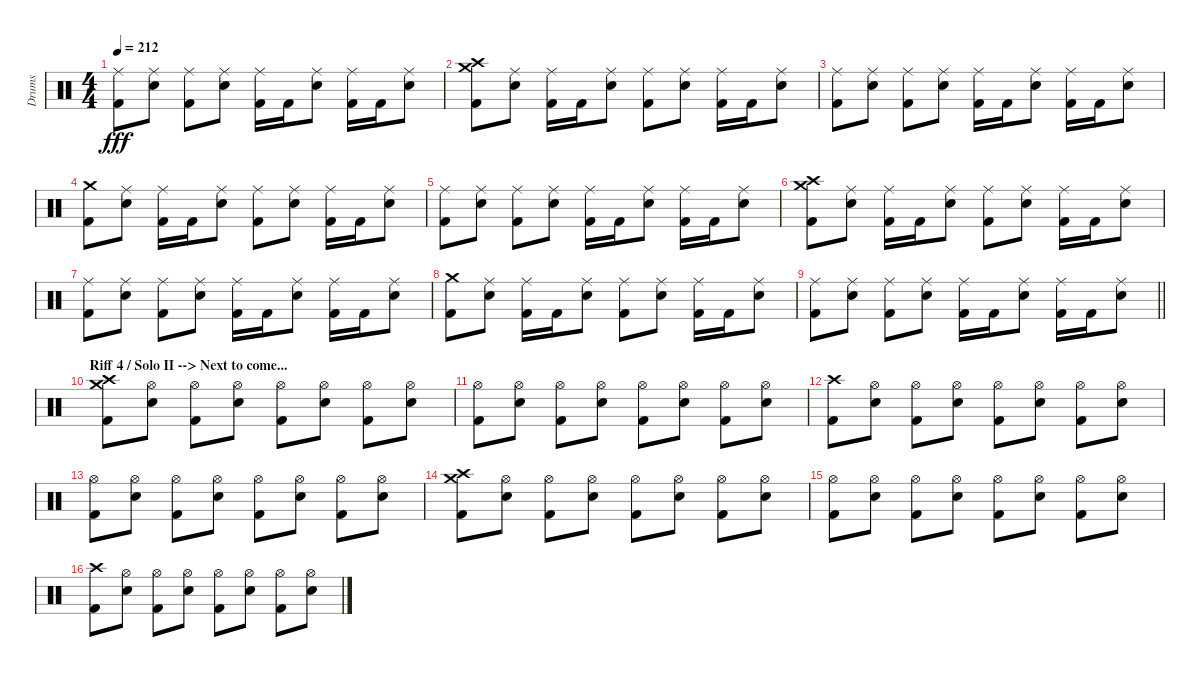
\track ("Drums" "Drums") {instrument percussion}
\staff {score}
\articulation defaults
\ts (4 4)
\tempo 212
\clef neutral
\ks c
("Ride (middle)" "Kick (hit) 2").8{dy fff} ("Ride (middle)" "Electric Snare (hit)").8 ("Ride (middle)" "Kick (hit) 2").8 ("Ride (middle)" "Electric Snare (hit)").8 ("Ride (middle)" "Kick (hit) 2").16 "Kick (hit) 2".16 ("Ride (middle)" "Electric Snare (hit)").8 ("Ride (middle)" "Kick (hit) 2").16 "Kick (hit) 2".16 ("Ride (middle)" "Electric Snare (hit)").8 |
("Crash high (hit)" "Crash medium (hit)" "Kick (hit) 2").8 ("Ride (middle)" "Electric Snare (hit)").8 ("Ride (middle)" "Kick (hit) 2").16 "Kick (hit) 2".16 ("Ride (middle)" "Electric Snare (hit)").8 ("Ride (middle)" "Kick (hit) 2").8 ("Ride (middle)" "Electric Snare (hit)").8 ("Ride (middle)" "Kick (hit) 2").16 "Kick (hit) 2".16 ("Ride (middle)" "Electric Snare (hit)").8 |
("Ride (middle)" "Kick (hit) 2").8 ("Ride (middle)" "Electric Snare (hit)").8 ("Ride (middle)" "Kick (hit) 2").8 ("Ride (middle)" "Electric Snare (hit)").8 ("Ride (middle)" "Kick (hit) 2").16 "Kick (hit) 2".16 ("Ride (middle)" "Electric Snare (hit)").8 ("Ride (middle)" "Kick (hit) 2").16 "Kick (hit) 2".16 ("Ride (middle)" "Electric Snare (hit)").8 |
("Crash medium (hit)" "Kick (hit) 2").8 ("Ride (middle)" "Electric Snare (hit)").8 ("Ride (middle)" "Kick (hit) 2").16 "Kick (hit) 2".16 ("Ride (middle)" "Electric Snare (hit)").8 ("Ride (middle)" "Kick (hit) 2").8 ("Ride (middle)" "Electric Snare (hit)").8 ("Ride (middle)" "Kick (hit) 2").16 "Kick (hit) 2".16 ("Ride (middle)" "Electric Snare (hit)").8 |
("Ride (middle)" "Kick (hit) 2").8 ("Ride (middle)" "Electric Snare (hit)").8 ("Ride (middle)" "Kick (hit) 2").8 ("Ride (middle)" "Electric Snare (hit)").8 ("Ride (middle)" "Kick (hit) 2").16 "Kick (hit) 2".16 ("Ride (middle)" "Electric Snare (hit)").8 ("Ride (middle)" "Kick (hit) 2").16 "Kick (hit) 2".16 ("Ride (middle)" "Electric Snare (hit)").8 |
("Crash high (hit)" "Crash medium (hit)" "Kick (hit) 2").8 ("Ride (middle)" "Electric Snare (hit)").8 ("Ride (middle)" "Kick (hit) 2").16 "Kick (hit) 2".16 ("Ride (middle)" "Electric Snare (hit)").8 ("Ride (middle)" "Kick (hit) 2").8 ("Ride (middle)" "Electric Snare (hit)").8 ("Ride (middle)" "Kick (hit) 2").16 "Kick (hit) 2".16 ("Ride (middle)" "Electric Snare (hit)").8 |
("Ride (middle)" "Kick (hit) 2").8 ("Ride (middle)" "Electric Snare (hit)").8 ("Ride (middle)" "Kick (hit) 2").8 ("Ride (middle)" "Electric Snare (hit)").8 ("Ride (middle)" "Kick (hit) 2").16 "Kick (hit) 2".16 ("Ride (middle)" "Electric Snare (hit)").8 ("Ride (middle)" "Kick (hit) 2").16 "Kick (hit) 2".16 ("Ride (middle)" "Electric Snare (hit)").8 |
("Crash medium (hit)" "Kick (hit) 2").8 ("Ride (middle)" "Electric Snare (hit)").8 ("Ride (middle)" "Kick (hit) 2").16 "Kick (hit) 2".16 ("Ride (middle)" "Electric Snare (hit)").8 ("Ride (middle)" "Kick (hit) 2").8 ("Ride (middle)" "Electric Snare (hit)").8 ("Ride (middle)" "Kick (hit) 2").16 "Kick (hit) 2".16 ("Ride (middle)" "Electric Snare (hit)").8 |
\barLineRight lightlight
("Ride (middle)" "Kick (hit) 2").8 ("Ride (middle)" "Electric Snare (hit)").8 ("Ride (middle)" "Kick (hit) 2").8 ("Ride (middle)" "Electric Snare (hit)").8 ("Ride (middle)" "Kick (hit) 2").16 "Kick (hit) 2".16 ("Ride (middle)" "Electric Snare (hit)").8 ("Ride (middle)" "Kick (hit) 2").16 "Kick (hit) 2".16 ("Ride (middle)" "Electric Snare (hit)").8 |
\section ("" "Riff 4 / Solo II --> Next to come...")
("Crash high (hit)" "Crash medium (hit)" "Kick (hit) 2").8 ("Hi-Hat (open)" "Snare (hit) 2").8 ("Hi-Hat (open)" "Kick (hit) 2").8 ("Hi-Hat (open)" "Snare (hit) 2").8 ("Hi-Hat (open)" "Kick (hit) 2").8 ("Hi-Hat (open)" "Snare (hit) 2").8 ("Hi-Hat (open)" "Kick (hit) 2").8 ("Hi-Hat (open)" "Snare (hit) 2").8 |
("Hi-Hat (open)" "Kick (hit) 2").8 ("Hi-Hat (open)" "Snare (hit) 2").8 ("Hi-Hat (open)" "Kick (hit) 2").8 ("Hi-Hat (open)" "Snare (hit) 2").8 ("Hi-Hat (open)" "Kick (hit) 2").8 ("Hi-Hat (open)" "Snare (hit) 2").8 ("Hi-Hat (open)" "Kick (hit) 2").8 ("Hi-Hat (open)" "Snare (hit) 2").8 |
("Crash high (hit)" "Kick (hit) 2").8 ("Hi-Hat (open)" "Snare (hit) 2").8 ("Hi-Hat (open)" "Kick (hit) 2").8 ("Hi-Hat (open)" "Snare (hit) 2").8 ("Hi-Hat (open)" "Kick (hit) 2").8 ("Hi-Hat (open)" "Snare (hit) 2").8 ("Hi-Hat (open)" "Kick (hit) 2").8 ("Hi-Hat (open)" "Snare (hit) 2").8 |
("Hi-Hat (open)" "Kick (hit) 2").8 ("Hi-Hat (open)" "Snare (hit) 2").8 ("Hi-Hat (open)" "Kick (hit) 2").8 ("Hi-Hat (open)" "Snare (hit) 2").8 ("Hi-Hat (open)" "Kick (hit) 2").8 ("Hi-Hat (open)" "Snare (hit) 2").8 ("Hi-Hat (open)" "Kick (hit) 2").8 ("Hi-Hat (open)" "Snare (hit) 2").8 |
("Crash high (hit)" "Crash medium (hit)" "Kick (hit) 2").8 ("Hi-Hat (open)" "Snare (hit) 2").8 ("Hi-Hat (open)" "Kick (hit) 2").8 ("Hi-Hat (open)" "Snare (hit) 2").8 ("Hi-Hat (open)" "Kick (hit) 2").8 ("Hi-Hat (open)" "Snare (hit) 2").8 ("Hi-Hat (open)" "Kick (hit) 2").8 ("Hi-Hat (open)" "Snare (hit) 2").8 |
("Hi-Hat (open)" "Kick (hit) 2").8 ("Hi-Hat (open)" "Snare (hit) 2").8 ("Hi-Hat (open)" "Kick (hit) 2").8 ("Hi-Hat (open)" "Snare (hit) 2").8 ("Hi-Hat (open)" "Kick (hit) 2").8 ("Hi-Hat (open)" "Snare (hit) 2").8 ("Hi-Hat (open)" "Kick (hit) 2").8 ("Hi-Hat (open)" "Snare (hit) 2").8 |
("Crash high (hit)" "Kick (hit) 2").8 ("Hi-Hat (open)" "Snare (hit) 2").8 ("Hi-Hat (open)" "Kick (hit) 2").8 ("Hi-Hat (open)" "Snare (hit) 2").8 ("Hi-Hat (open)" "Kick (hit) 2").8 ("Hi-Hat (open)" "Snare (hit) 2").8 ("Hi-Hat (open)" "Kick (hit) 2").8 ("Hi-Hat (open)" "Snare (hit) 2").8
